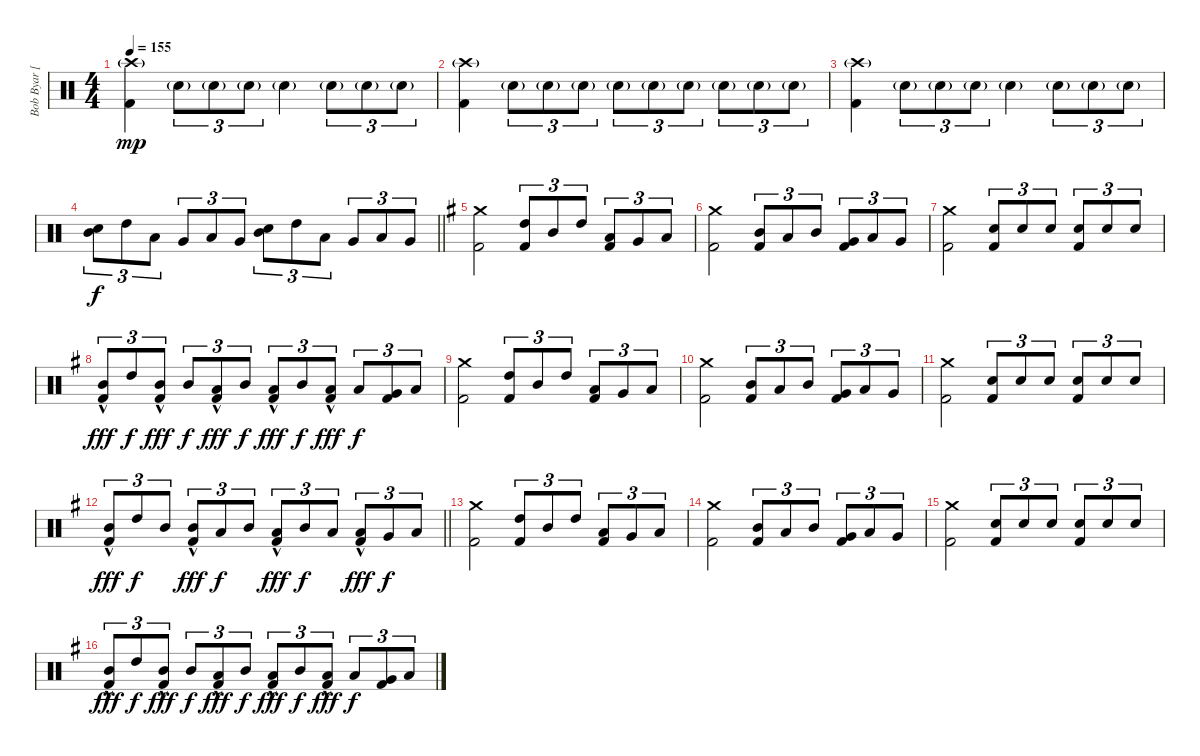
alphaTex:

\track ("Bob Byar [Drums]" "Bob Byar [") {instrument percussion}
\staff {score}
\articulation defaults
\ts (4 4)
\tempo 155
\clef neutral
\ks c
("Crash high (hit)"{g} "Kick (hit) 2").4{dy mp} "Snare (hit) 2"{g}.8{tu (3 2)} "Snare (hit) 2"{g}.8{tu (3 2)} "Snare (hit) 2"{g}.8{tu (3 2)} "Snare (hit) 2"{g}.4 "Snare (hit) 2"{g}.8{tu (3 2)} "Snare (hit) 2"{g}.8{tu (3 2)} "Snare (hit) 2"{g}.8{tu (3 2)} |
("Crash high (hit)"{g} "Kick (hit) 2").4 "Snare (hit) 2"{g}.8{tu (3 2)} "Snare (hit) 2"{g}.8{tu (3 2)} "Snare (hit) 2"{g}.8{tu (3 2)} "Snare (hit) 2"{g}.8{tu (3 2)} "Snare (hit) 2"{g}.8{tu (3 2)} "Snare (hit) 2"{g}.8{tu (3 2)} "Snare (hit) 2"{g}.8{tu (3 2)} "Snare (hit) 2"{g}.8{tu (3 2)} "Snare (hit) 2"{g}.8{tu (3 2)} |
("Crash high (hit)"{g} "Kick (hit) 2").4 "Snare (hit) 2"{g}.8{tu (3 2)} "Snare (hit) 2"{g}.8{tu (3 2)} "Snare (hit) 2"{g}.8{tu (3 2)} "Snare (hit) 2"{g}.4 "Snare (hit) 2"{g}.8{tu (3 2)} "Snare (hit) 2"{g}.8{tu (3 2)} "Snare (hit) 2"{g}.8{tu (3 2)} |
\barLineRight lightlight
("Mid Tom (hit)" "Electric Snare (hit)").8{tu (3 2) dy f} "High Tom (hit)".8{tu (3 2)} "Low Tom (hit)".8{tu (3 2)} "Very Low Tom (hit)".8{tu (3 2)} "Low Tom (hit)".8{tu (3 2)} "Very Low Tom (hit)".8{tu (3 2)} ("Mid Tom (hit)" "Electric Snare (hit)").8{tu (3 2)} "High Tom (hit)".8{tu (3 2)} "Low Tom (hit)".8{tu (3 2)} "Very Low Tom (hit)".8{tu (3 2)} "Low Tom (hit)".8{tu (3 2)} "Very Low Tom (hit)".8{tu (3 2)} |
\ks eminor
("Crash medium (hit)" "Kick (hit) 2").2 ("High Tom (hit)" "Kick (hit) 2").8{tu (3 2)} "Mid Tom (hit)".8{tu (3 2)} "High Tom (hit)".8{tu (3 2)} ("Low Tom (hit)" "Kick (hit) 2").8{tu (3 2)} "Very Low Tom (hit)".8{tu (3 2)} "Low Tom (hit)".8{tu (3 2)} |
("Crash medium (hit)" "Kick (hit) 2").2 ("Mid Tom (hit)" "Kick (hit) 2").8{tu (3 2)} "Low Tom (hit)".8{tu (3 2)} "Mid Tom (hit)".8{tu (3 2)} ("Very Low Tom (hit)" "Kick (hit) 2").8{tu (3 2)} "Low Tom (hit)".8{tu (3 2)} "Very Low Tom (hit)".8{tu (3 2)} |
("Crash medium (hit)" "Kick (hit) 2").2 ("Electric Snare (hit)" "Kick (hit) 2").8{tu (3 2)} "Electric Snare (hit)".8{tu (3 2)} "Electric Snare (hit)".8{tu (3 2)} ("Electric Snare (hit)" "Kick (hit) 2").8{tu (3 2)} "Electric Snare (hit)".8{tu (3 2)} "Electric Snare (hit)".8{tu (3 2)} |
("Mid Tom (hit)" "Kick (hit) 2"{hac}).8{tu (3 2) dy fff} "High Tom (hit)".8{tu (3 2) dy f} ("Mid Tom (hit)" "Kick (hit) 2"{hac}).8{tu (3 2) dy fff} "Mid Tom (hit)".8{tu (3 2) dy f} ("Low Tom (hit)" "Kick (hit) 2"{hac}).8{tu (3 2) dy fff} "Mid Tom (hit)".8{tu (3 2) dy f} ("Low Tom (hit)" "Kick (hit) 2"{hac}).8{tu (3 2) dy fff} "Mid Tom (hit)".8{tu (3 2) dy f} ("Low Tom (hit)" "Kick (hit) 2"{hac}).8{tu (3 2) dy fff} "Low Tom (hit)".8{tu (3 2) dy f} ("Very Low Tom (hit)" "Kick (hit) 2").8{tu (3 2)} "Low Tom (hit)".8{tu (3 2)} |
("Crash medium (hit)" "Kick (hit) 2").2 ("High Tom (hit)" "Kick (hit) 2").8{tu (3 2)} "Mid Tom (hit)".8{tu (3 2)} "High Tom (hit)".8{tu (3 2)} ("Low Tom (hit)" "Kick (hit) 2").8{tu (3 2)} "Very Low Tom (hit)".8{tu (3 2)} "Low Tom (hit)".8{tu (3 2)} |
("Crash medium (hit)" "Kick (hit) 2").2 ("Mid Tom (hit)" "Kick (hit) 2").8{tu (3 2)} "Low Tom (hit)".8{tu (3 2)} "Mid Tom (hit)".8{tu (3 2)} ("Very Low Tom (hit)" "Kick (hit) 2").8{tu (3 2)} "Low Tom (hit)".8{tu (3 2)} "Very Low Tom (hit)".8{tu (3 2)} |
("Crash medium (hit)" "Kick (hit) 2").2 ("Electric Snare (hit)" "Kick (hit) 2").8{tu (3 2)} "Electric Snare (hit)".8{tu (3 2)} "Electric Snare (hit)".8{tu (3 2)} ("Electric Snare (hit)" "Kick (hit) 2").8{tu (3 2)} "Electric Snare (hit)".8{tu (3 2)} "Electric Snare (hit)".8{tu (3 2)} |
\barLineRight lightlight
("Mid Tom (hit)" "Kick (hit) 2"{hac}).8{tu (3 2) dy fff} "High Tom (hit)".8{tu (3 2) dy f} "Mid Tom (hit)".8{tu (3 2)} ("Mid Tom (hit)" "Kick (hit) 2"{hac}).8{tu (3 2) dy fff} "Low Tom (hit)".8{tu (3 2) dy f} "Mid Tom (hit)".8{tu (3 2)} ("Low Tom (hit)" "Kick (hit) 2"{hac}).8{tu (3 2) dy fff} "Mid Tom (hit)".8{tu (3 2) dy f} "Low Tom (hit)".8{tu (3 2)} ("Low Tom (hit)" "Kick (hit) 2"{hac}).8{tu (3 2) dy fff} "Very Low Tom (hit)".8{tu (3 2) dy f} "Low Tom (hit)".8{tu (3 2)} |
("Crash medium (hit)" "Kick (hit) 2").2 ("High Tom (hit)" "Kick (hit) 2").8{tu (3 2)} "Mid Tom (hit)".8{tu (3 2)} "High Tom (hit)".8{tu (3 2)} ("Low Tom (hit)" "Kick (hit) 2").8{tu (3 2)} "Very Low Tom (hit)".8{tu (3 2)} "Low Tom (hit)".8{tu (3 2)} |
("Crash medium (hit)" "Kick (hit) 2").2 ("Mid Tom (hit)" "Kick (hit) 2").8{tu (3 2)} "Low Tom (hit)".8{tu (3 2)} "Mid Tom (hit)".8{tu (3 2)} ("Very Low Tom (hit)" "Kick (hit) 2").8{tu (3 2)} "Low Tom (hit)".8{tu (3 2)} "Very Low Tom (hit)".8{tu (3 2)} |
("Crash medium (hit)" "Kick (hit) 2").2 ("Electric Snare (hit)" "Kick (hit) 2").8{tu (3 2)} "Electric Snare (hit)".8{tu (3 2)} "Electric Snare (hit)".8{tu (3 2)} ("Electric Snare (hit)" "Kick (hit) 2").8{tu (3 2)} "Electric Snare (hit)".8{tu (3 2)} "Electric Snare (hit)".8{tu (3 2)} |
("Mid Tom (hit)" "Kick (hit) 2"{hac}).8{tu (3 2) dy fff} "High Tom (hit)".8{tu (3 2) dy f} ("Mid Tom (hit)" "Kick (hit) 2"{hac}).8{tu (3 2) dy fff} "Mid Tom (hit)".8{tu (3 2) dy f} ("Low Tom (hit)" "Kick (hit) 2"{hac}).8{tu (3 2) dy fff} "Mid Tom (hit)".8{tu (3 2) dy f} ("Low Tom (hit)" "Kick (hit) 2"{hac}).8{tu (3 2) dy fff} "Mid Tom (hit)".8{tu (3 2) dy f} ("Low Tom (hit)" "Kick (hit) 2"{hac}).8{tu (3 2) dy fff} "Low Tom (hit)".8{tu (3 2) dy f} ("Very Low Tom (hit)" "Kick (hit) 2").8{tu (3 2)} "Low Tom (hit)".8{tu (3 2)}
